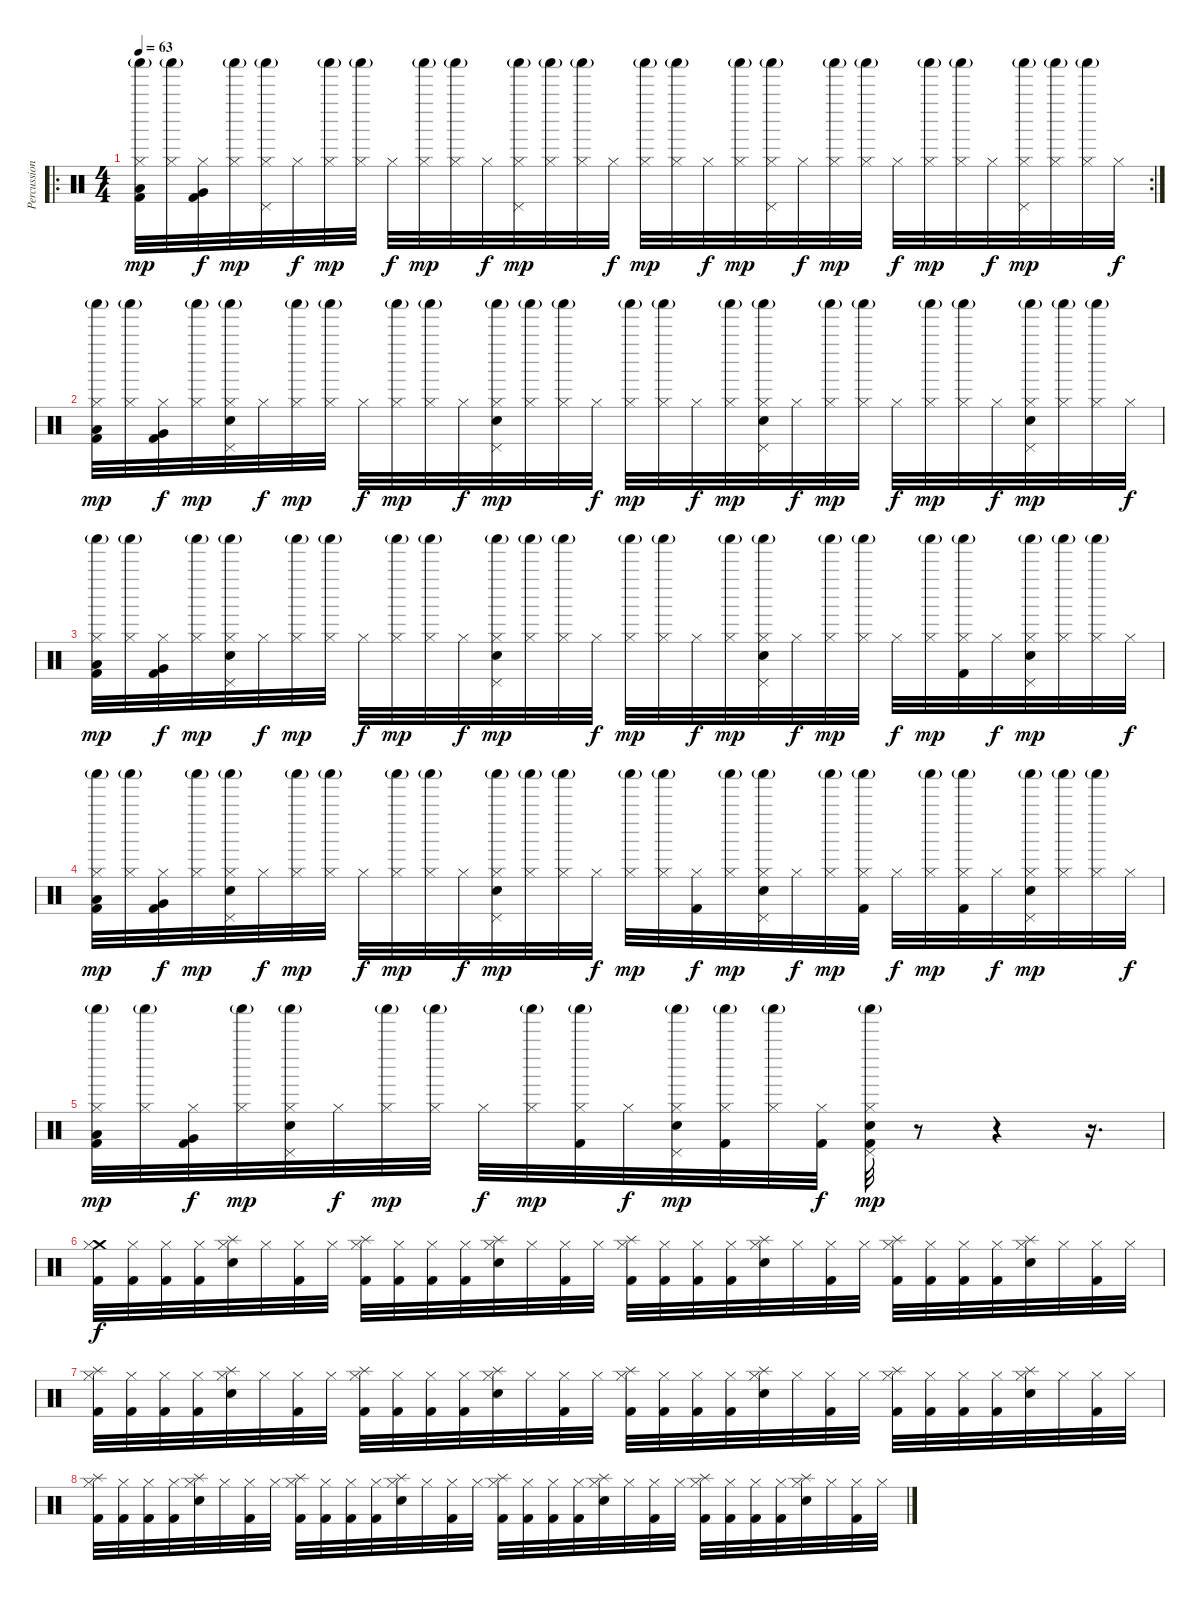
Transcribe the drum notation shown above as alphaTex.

\track ("Percussion" "Percussion") {instrument percussion}
\staff {score}
\articulation defaults
\ro
\rc 2
\ts (4 4)
\tempo 63
\clef neutral
\ks c
("Hi-Hat (closed)" "Shaker (hit)"{g} "Low Floor Tom (hit)" "Kick (hit) 2").32{dy mp} ("Hi-Hat (closed)" "Shaker (hit)"{g}).32 ("Hi-Hat (closed)" "Very Low Tom (hit)" "Kick (hit) 2").32{dy f} ("Hi-Hat (closed)" "Shaker (hit)"{g}).32{dy mp} ("Hi-Hat (closed)" "Shaker (hit)"{g} "Pedal Hi-Hat (hit)").32 "Hi-Hat (closed)".32{dy f} ("Hi-Hat (closed)" "Shaker (hit)"{g}).32{dy mp} ("Hi-Hat (closed)" "Shaker (hit)"{g}).32 "Hi-Hat (closed)".32{dy f} ("Hi-Hat (closed)" "Shaker (hit)"{g}).32{dy mp} ("Hi-Hat (closed)" "Shaker (hit)"{g}).32 "Hi-Hat (closed)".32{dy f} ("Hi-Hat (closed)" "Shaker (hit)"{g} "Pedal Hi-Hat (hit)").32{dy mp} ("Hi-Hat (closed)" "Shaker (hit)"{g}).32 ("Hi-Hat (closed)" "Shaker (hit)"{g}).32 "Hi-Hat (closed)".32{dy f} ("Hi-Hat (closed)" "Shaker (hit)"{g}).32{dy mp} ("Hi-Hat (closed)" "Shaker (hit)"{g}).32 "Hi-Hat (closed)".32{dy f} ("Hi-Hat (closed)" "Shaker (hit)"{g}).32{dy mp} ("Hi-Hat (closed)" "Shaker (hit)"{g} "Pedal Hi-Hat (hit)").32 "Hi-Hat (closed)".32{dy f} ("Hi-Hat (closed)" "Shaker (hit)"{g}).32{dy mp} ("Hi-Hat (closed)" "Shaker (hit)"{g}).32 "Hi-Hat (closed)".32{dy f} ("Hi-Hat (closed)" "Shaker (hit)"{g}).32{dy mp} ("Hi-Hat (closed)" "Shaker (hit)"{g}).32 "Hi-Hat (closed)".32{dy f} ("Hi-Hat (closed)" "Shaker (hit)"{g} "Pedal Hi-Hat (hit)").32{dy mp} ("Hi-Hat (closed)" "Shaker (hit)"{g}).32 ("Hi-Hat (closed)" "Shaker (hit)"{g}).32 "Hi-Hat (closed)".32{dy f} |
("Hi-Hat (closed)" "Shaker (hit)"{g} "Low Floor Tom (hit)" "Kick (hit) 2").32{dy mp} ("Hi-Hat (closed)" "Shaker (hit)"{g}).32 ("Hi-Hat (closed)" "Very Low Tom (hit)" "Kick (hit) 2").32{dy f} ("Hi-Hat (closed)" "Shaker (hit)"{g}).32{dy mp} ("Hi-Hat (closed)" "Shaker (hit)"{g} "Pedal Hi-Hat (hit)" "Electric Snare (hit)").32 "Hi-Hat (closed)".32{dy f} ("Hi-Hat (closed)" "Shaker (hit)"{g}).32{dy mp} ("Hi-Hat (closed)" "Shaker (hit)"{g}).32 "Hi-Hat (closed)".32{dy f} ("Hi-Hat (closed)" "Shaker (hit)"{g}).32{dy mp} ("Hi-Hat (closed)" "Shaker (hit)"{g}).32 "Hi-Hat (closed)".32{dy f} ("Hi-Hat (closed)" "Shaker (hit)"{g} "Pedal Hi-Hat (hit)" "Electric Snare (hit)").32{dy mp} ("Hi-Hat (closed)" "Shaker (hit)"{g}).32 ("Hi-Hat (closed)" "Shaker (hit)"{g}).32 "Hi-Hat (closed)".32{dy f} ("Hi-Hat (closed)" "Shaker (hit)"{g}).32{dy mp} ("Hi-Hat (closed)" "Shaker (hit)"{g}).32 "Hi-Hat (closed)".32{dy f} ("Hi-Hat (closed)" "Shaker (hit)"{g}).32{dy mp} ("Hi-Hat (closed)" "Shaker (hit)"{g} "Pedal Hi-Hat (hit)" "Electric Snare (hit)").32 "Hi-Hat (closed)".32{dy f} ("Hi-Hat (closed)" "Shaker (hit)"{g}).32{dy mp} ("Hi-Hat (closed)" "Shaker (hit)"{g}).32 "Hi-Hat (closed)".32{dy f} ("Hi-Hat (closed)" "Shaker (hit)"{g}).32{dy mp} ("Hi-Hat (closed)" "Shaker (hit)"{g}).32 "Hi-Hat (closed)".32{dy f} ("Hi-Hat (closed)" "Shaker (hit)"{g} "Pedal Hi-Hat (hit)" "Electric Snare (hit)").32{dy mp} ("Hi-Hat (closed)" "Shaker (hit)"{g}).32 ("Hi-Hat (closed)" "Shaker (hit)"{g}).32 "Hi-Hat (closed)".32{dy f} |
("Hi-Hat (closed)" "Shaker (hit)"{g} "Low Floor Tom (hit)" "Kick (hit) 2").32{dy mp} ("Hi-Hat (closed)" "Shaker (hit)"{g}).32 ("Hi-Hat (closed)" "Very Low Tom (hit)" "Kick (hit) 2").32{dy f} ("Hi-Hat (closed)" "Shaker (hit)"{g}).32{dy mp} ("Hi-Hat (closed)" "Shaker (hit)"{g} "Pedal Hi-Hat (hit)" "Electric Snare (hit)").32 "Hi-Hat (closed)".32{dy f} ("Hi-Hat (closed)" "Shaker (hit)"{g}).32{dy mp} ("Hi-Hat (closed)" "Shaker (hit)"{g}).32 "Hi-Hat (closed)".32{dy f} ("Hi-Hat (closed)" "Shaker (hit)"{g}).32{dy mp} ("Hi-Hat (closed)" "Shaker (hit)"{g}).32 "Hi-Hat (closed)".32{dy f} ("Hi-Hat (closed)" "Shaker (hit)"{g} "Pedal Hi-Hat (hit)" "Electric Snare (hit)").32{dy mp} ("Hi-Hat (closed)" "Shaker (hit)"{g}).32 ("Hi-Hat (closed)" "Shaker (hit)"{g}).32 "Hi-Hat (closed)".32{dy f} ("Hi-Hat (closed)" "Shaker (hit)"{g}).32{dy mp} ("Hi-Hat (closed)" "Shaker (hit)"{g}).32 "Hi-Hat (closed)".32{dy f} ("Hi-Hat (closed)" "Shaker (hit)"{g}).32{dy mp} ("Hi-Hat (closed)" "Shaker (hit)"{g} "Pedal Hi-Hat (hit)" "Electric Snare (hit)").32 "Hi-Hat (closed)".32{dy f} ("Hi-Hat (closed)" "Shaker (hit)"{g}).32{dy mp} ("Hi-Hat (closed)" "Shaker (hit)"{g}).32 "Hi-Hat (closed)".32{dy f} ("Hi-Hat (closed)" "Shaker (hit)"{g}).32{dy mp} ("Hi-Hat (closed)" "Shaker (hit)"{g} "Kick (hit) 2").32 "Hi-Hat (closed)".32{dy f} ("Hi-Hat (closed)" "Shaker (hit)"{g} "Pedal Hi-Hat (hit)" "Electric Snare (hit)").32{dy mp} ("Hi-Hat (closed)" "Shaker (hit)"{g}).32 ("Hi-Hat (closed)" "Shaker (hit)"{g}).32 "Hi-Hat (closed)".32{dy f} |
("Hi-Hat (closed)" "Shaker (hit)"{g} "Low Floor Tom (hit)" "Kick (hit) 2").32{dy mp} ("Hi-Hat (closed)" "Shaker (hit)"{g}).32 ("Hi-Hat (closed)" "Very Low Tom (hit)" "Kick (hit) 2").32{dy f} ("Hi-Hat (closed)" "Shaker (hit)"{g}).32{dy mp} ("Hi-Hat (closed)" "Shaker (hit)"{g} "Pedal Hi-Hat (hit)" "Electric Snare (hit)").32 "Hi-Hat (closed)".32{dy f} ("Hi-Hat (closed)" "Shaker (hit)"{g}).32{dy mp} ("Hi-Hat (closed)" "Shaker (hit)"{g}).32 "Hi-Hat (closed)".32{dy f} ("Hi-Hat (closed)" "Shaker (hit)"{g}).32{dy mp} ("Hi-Hat (closed)" "Shaker (hit)"{g}).32 "Hi-Hat (closed)".32{dy f} ("Hi-Hat (closed)" "Shaker (hit)"{g} "Pedal Hi-Hat (hit)" "Electric Snare (hit)").32{dy mp} ("Hi-Hat (closed)" "Shaker (hit)"{g}).32 ("Hi-Hat (closed)" "Shaker (hit)"{g}).32 "Hi-Hat (closed)".32{dy f} ("Hi-Hat (closed)" "Shaker (hit)"{g}).32{dy mp} ("Hi-Hat (closed)" "Shaker (hit)"{g}).32 ("Hi-Hat (closed)" "Kick (hit) 2").32{dy f} ("Hi-Hat (closed)" "Shaker (hit)"{g}).32{dy mp} ("Hi-Hat (closed)" "Shaker (hit)"{g} "Pedal Hi-Hat (hit)" "Electric Snare (hit)").32 "Hi-Hat (closed)".32{dy f} ("Hi-Hat (closed)" "Shaker (hit)"{g}).32{dy mp} ("Hi-Hat (closed)" "Shaker (hit)"{g} "Kick (hit) 2").32 "Hi-Hat (closed)".32{dy f} ("Hi-Hat (closed)" "Shaker (hit)"{g}).32{dy mp} ("Hi-Hat (closed)" "Shaker (hit)"{g} "Kick (hit) 2").32 "Hi-Hat (closed)".32{dy f} ("Hi-Hat (closed)" "Shaker (hit)"{g} "Pedal Hi-Hat (hit)" "Electric Snare (hit)").32{dy mp} ("Hi-Hat (closed)" "Shaker (hit)"{g}).32 ("Hi-Hat (closed)" "Shaker (hit)"{g}).32 "Hi-Hat (closed)".32{dy f} |
("Hi-Hat (closed)" "Shaker (hit)"{g} "Low Floor Tom (hit)" "Kick (hit) 2").32{dy mp} ("Hi-Hat (closed)" "Shaker (hit)"{g}).32 ("Hi-Hat (closed)" "Very Low Tom (hit)" "Kick (hit) 2").32{dy f} ("Hi-Hat (closed)" "Shaker (hit)"{g}).32{dy mp} ("Hi-Hat (closed)" "Shaker (hit)"{g} "Pedal Hi-Hat (hit)" "Electric Snare (hit)").32 "Hi-Hat (closed)".32{dy f} ("Hi-Hat (closed)" "Shaker (hit)"{g}).32{dy mp} ("Hi-Hat (closed)" "Shaker (hit)"{g}).32 "Hi-Hat (closed)".32{dy f} ("Hi-Hat (closed)" "Shaker (hit)"{g}).32{dy mp} ("Hi-Hat (closed)" "Shaker (hit)"{g} "Kick (hit) 2").32 "Hi-Hat (closed)".32{dy f} ("Hi-Hat (closed)" "Shaker (hit)"{g} "Pedal Hi-Hat (hit)" "Electric Snare (hit)").32{dy mp} ("Hi-Hat (closed)" "Shaker (hit)"{g} "Kick (hit) 2").32 ("Hi-Hat (closed)" "Shaker (hit)"{g}).32 ("Hi-Hat (closed)" "Kick (hit) 2").32{dy f} ("Hi-Hat (closed)" "Shaker (hit)"{g} "Pedal Hi-Hat (hit)" "Electric Snare (hit)" "Kick (hit) 2").32{dy mp} r.8 r.4 r.16{d} |
("Crash medium (hit)" "Hi-Hat (closed)" "Kick (hit) 2").32{dy f} ("Hi-Hat (closed)" "Kick (hit) 2").32 ("Hi-Hat (closed)" "Kick (hit) 2").32 ("Hi-Hat (closed)" "Kick (hit) 2").32 ("Splash (hit)" "Hi-Hat (closed)" "Electric Snare (hit)").32 "Hi-Hat (closed)".32 ("Hi-Hat (closed)" "Kick (hit) 2").32 "Hi-Hat (closed)".32 ("Splash (hit)" "Hi-Hat (closed)" "Kick (hit) 2").32 ("Hi-Hat (closed)" "Kick (hit) 2").32 ("Hi-Hat (closed)" "Kick (hit) 2").32 ("Hi-Hat (closed)" "Kick (hit) 2").32 ("Splash (hit)" "Hi-Hat (closed)" "Electric Snare (hit)").32 "Hi-Hat (closed)".32 ("Hi-Hat (closed)" "Kick (hit) 2").32 "Hi-Hat (closed)".32 ("Splash (hit)" "Hi-Hat (closed)" "Kick (hit) 2").32 ("Hi-Hat (closed)" "Kick (hit) 2").32 ("Hi-Hat (closed)" "Kick (hit) 2").32 ("Hi-Hat (closed)" "Kick (hit) 2").32 ("Splash (hit)" "Hi-Hat (closed)" "Electric Snare (hit)").32 "Hi-Hat (closed)".32 ("Hi-Hat (closed)" "Kick (hit) 2").32 "Hi-Hat (closed)".32 ("Splash (hit)" "Hi-Hat (closed)" "Kick (hit) 2").32 ("Hi-Hat (closed)" "Kick (hit) 2").32 ("Hi-Hat (closed)" "Kick (hit) 2").32 ("Hi-Hat (closed)" "Kick (hit) 2").32 ("Splash (hit)" "Hi-Hat (closed)" "Electric Snare (hit)").32 "Hi-Hat (closed)".32 ("Hi-Hat (closed)" "Kick (hit) 2").32 "Hi-Hat (closed)".32 |
("Splash (hit)" "Hi-Hat (closed)" "Kick (hit) 2").32 ("Hi-Hat (closed)" "Kick (hit) 2").32 ("Hi-Hat (closed)" "Kick (hit) 2").32 ("Hi-Hat (closed)" "Kick (hit) 2").32 ("Splash (hit)" "Hi-Hat (closed)" "Electric Snare (hit)").32 "Hi-Hat (closed)".32 ("Hi-Hat (closed)" "Kick (hit) 2").32 "Hi-Hat (closed)".32 ("Splash (hit)" "Hi-Hat (closed)" "Kick (hit) 2").32 ("Hi-Hat (closed)" "Kick (hit) 2").32 ("Hi-Hat (closed)" "Kick (hit) 2").32 ("Hi-Hat (closed)" "Kick (hit) 2").32 ("Splash (hit)" "Hi-Hat (closed)" "Electric Snare (hit)").32 "Hi-Hat (closed)".32 ("Hi-Hat (closed)" "Kick (hit) 2").32 "Hi-Hat (closed)".32 ("Splash (hit)" "Hi-Hat (closed)" "Kick (hit) 2").32 ("Hi-Hat (closed)" "Kick (hit) 2").32 ("Hi-Hat (closed)" "Kick (hit) 2").32 ("Hi-Hat (closed)" "Kick (hit) 2").32 ("Splash (hit)" "Hi-Hat (closed)" "Electric Snare (hit)").32 "Hi-Hat (closed)".32 ("Hi-Hat (closed)" "Kick (hit) 2").32 "Hi-Hat (closed)".32 ("Splash (hit)" "Hi-Hat (closed)" "Kick (hit) 2").32 ("Hi-Hat (closed)" "Kick (hit) 2").32 ("Hi-Hat (closed)" "Kick (hit) 2").32 ("Hi-Hat (closed)" "Kick (hit) 2").32 ("Splash (hit)" "Hi-Hat (closed)" "Electric Snare (hit)").32 "Hi-Hat (closed)".32 ("Hi-Hat (closed)" "Kick (hit) 2").32 "Hi-Hat (closed)".32 |
("Splash (hit)" "Hi-Hat (closed)" "Kick (hit) 2").32 ("Hi-Hat (closed)" "Kick (hit) 2").32 ("Hi-Hat (closed)" "Kick (hit) 2").32 ("Hi-Hat (closed)" "Kick (hit) 2").32 ("Splash (hit)" "Hi-Hat (closed)" "Electric Snare (hit)").32 "Hi-Hat (closed)".32 ("Hi-Hat (closed)" "Kick (hit) 2").32 "Hi-Hat (closed)".32 ("Splash (hit)" "Hi-Hat (closed)" "Kick (hit) 2").32 ("Hi-Hat (closed)" "Kick (hit) 2").32 ("Hi-Hat (closed)" "Kick (hit) 2").32 ("Hi-Hat (closed)" "Kick (hit) 2").32 ("Splash (hit)" "Hi-Hat (closed)" "Electric Snare (hit)").32 "Hi-Hat (closed)".32 ("Hi-Hat (closed)" "Kick (hit) 2").32 "Hi-Hat (closed)".32 ("Splash (hit)" "Hi-Hat (closed)" "Kick (hit) 2").32 ("Hi-Hat (closed)" "Kick (hit) 2").32 ("Hi-Hat (closed)" "Kick (hit) 2").32 ("Hi-Hat (closed)" "Kick (hit) 2").32 ("Splash (hit)" "Hi-Hat (closed)" "Electric Snare (hit)").32 "Hi-Hat (closed)".32 ("Hi-Hat (closed)" "Kick (hit) 2").32 "Hi-Hat (closed)".32 ("Splash (hit)" "Hi-Hat (closed)" "Kick (hit) 2").32 ("Hi-Hat (closed)" "Kick (hit) 2").32 ("Hi-Hat (closed)" "Kick (hit) 2").32 ("Hi-Hat (closed)" "Kick (hit) 2").32 ("Splash (hit)" "Hi-Hat (closed)" "Electric Snare (hit)").32 "Hi-Hat (closed)".32 ("Hi-Hat (closed)" "Kick (hit) 2").32 "Hi-Hat (closed)".32
